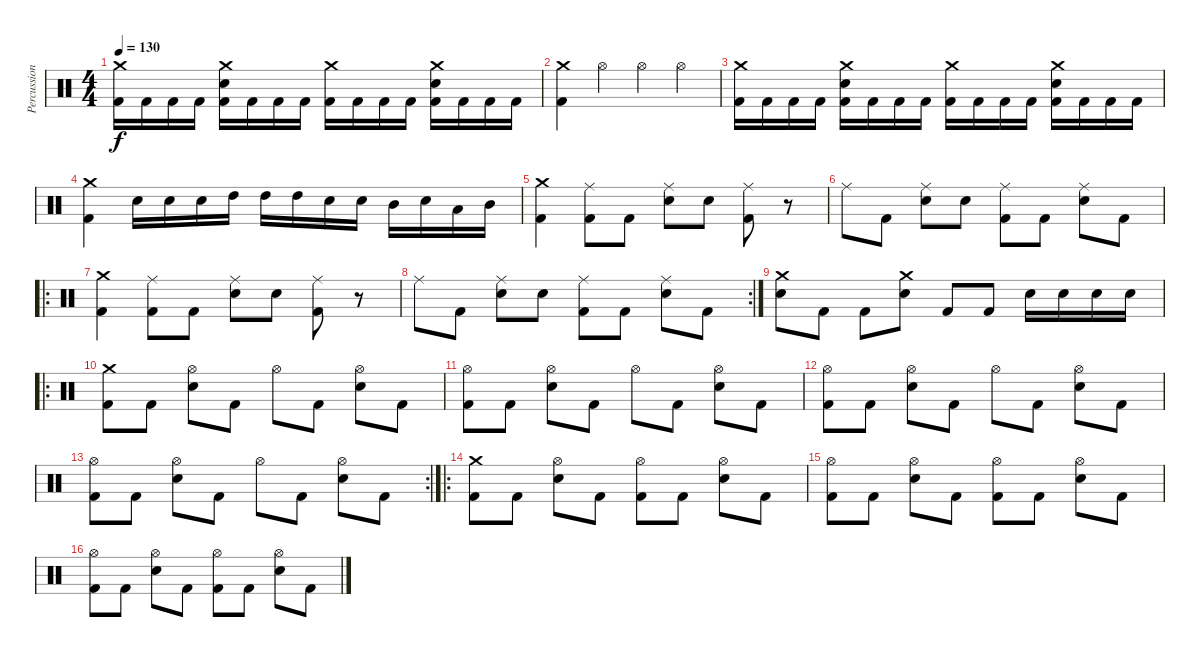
\track ("Percussion" "Percussion") {instrument percussion}
\staff {score}
\articulation defaults
\ts (4 4)
\tempo 130
\clef neutral
\ks c
("Crash medium (hit)" "Kick (hit) 2").16{dy f} "Kick (hit) 2".16 "Kick (hit) 2".16 "Kick (hit) 2".16 ("Crash medium (hit)" "Electric Snare (hit)" "Kick (hit) 2").16 "Kick (hit) 2".16 "Kick (hit) 2".16 "Kick (hit) 2".16 ("Crash medium (hit)" "Kick (hit) 2").16 "Kick (hit) 2".16 "Kick (hit) 2".16 "Kick (hit) 2".16 ("Crash medium (hit)" "Electric Snare (hit)" "Kick (hit) 2").16 "Kick (hit) 2".16 "Kick (hit) 2".16 "Kick (hit) 2".16 |
("Crash medium (hit)" "Kick (hit) 2").4 "Hi-Hat (open)".4 "Hi-Hat (open)".4 "Hi-Hat (open)".4 |
("Crash medium (hit)" "Kick (hit) 2").16 "Kick (hit) 2".16 "Kick (hit) 2".16 "Kick (hit) 2".16 ("Crash medium (hit)" "Electric Snare (hit)" "Kick (hit) 2").16 "Kick (hit) 2".16 "Kick (hit) 2".16 "Kick (hit) 2".16 ("Crash medium (hit)" "Kick (hit) 2").16 "Kick (hit) 2".16 "Kick (hit) 2".16 "Kick (hit) 2".16 ("Crash medium (hit)" "Electric Snare (hit)" "Kick (hit) 2").16 "Kick (hit) 2".16 "Kick (hit) 2".16 "Kick (hit) 2".16 |
("Crash medium (hit)" "Kick (hit) 2").4 "Electric Snare (hit)".16 "Electric Snare (hit)".16 "Electric Snare (hit)".16 "High Tom (hit)".16 "High Tom (hit)".16 "High Tom (hit)".16 "Electric Snare (hit)".16 "Electric Snare (hit)".16 "Mid Tom (hit)".16 "Electric Snare (hit)".16 "Low Tom (hit)".16 "Mid Tom (hit)".16 |
("Crash medium (hit)" "Kick (hit) 2").4 ("Ride (middle)" "Kick (hit) 2").8 "Kick (hit) 2".8 ("Ride (middle)" "Electric Snare (hit)").8 "Electric Snare (hit)".8 ("Ride (middle)" "Kick (hit) 2").8 r.8 |
"Ride (middle)".8 "Kick (hit) 2".8 ("Ride (middle)" "Electric Snare (hit)").8 "Electric Snare (hit)".8 ("Ride (middle)" "Kick (hit) 2").8 "Kick (hit) 2".8 ("Ride (middle)" "Electric Snare (hit)").8 "Kick (hit) 2".8 |
\ro
("Crash medium (hit)" "Kick (hit) 2").4 ("Ride (middle)" "Kick (hit) 2").8 "Kick (hit) 2".8 ("Ride (middle)" "Electric Snare (hit)").8 "Electric Snare (hit)".8 ("Ride (middle)" "Kick (hit) 2").8 r.8 |
\rc 2 "Ride (middle)".8 "Kick (hit) 2".8
("Ride (middle)" "Electric Snare (hit)").8 "Electric Snare (hit)".8 ("Ride (middle)" "Kick (hit) 2").8 "Kick (hit) 2".8 ("Ride (middle)" "Electric Snare (hit)").8 "Kick (hit) 2".8 |
("Crash medium (hit)" "Electric Snare (hit)").8 "Kick (hit) 2".8 "Kick (hit) 2".8 ("Crash medium (hit)" "Electric Snare (hit)").8 "Kick (hit) 2".8 "Kick (hit) 2".8 "Electric Snare (hit)".16 "Electric Snare (hit)".16 "Electric Snare (hit)".16 "Electric Snare (hit)".16 |
\ro
("Crash medium (hit)" "Kick (hit) 2").8 "Kick (hit) 2".8 ("Hi-Hat (open)" "Electric Snare (hit)").8 "Kick (hit) 2".8 "Hi-Hat (open)".8 "Kick (hit) 2".8 ("Hi-Hat (open)" "Electric Snare (hit)").8 "Kick (hit) 2".8 |
("Hi-Hat (open)" "Kick (hit) 2").8 "Kick (hit) 2".8 ("Hi-Hat (open)" "Electric Snare (hit)").8 "Kick (hit) 2".8 "Hi-Hat (open)".8 "Kick (hit) 2".8 ("Hi-Hat (open)" "Electric Snare (hit)").8 "Kick (hit) 2".8 |
("Hi-Hat (open)" "Kick (hit) 2").8 "Kick (hit) 2".8 ("Hi-Hat (open)" "Electric Snare (hit)").8 "Kick (hit) 2".8 "Hi-Hat (open)".8 "Kick (hit) 2".8 ("Hi-Hat (open)" "Electric Snare (hit)").8 "Kick (hit) 2".8 |
\rc 2
("Hi-Hat (open)" "Kick (hit) 2").8 "Kick (hit) 2".8 ("Hi-Hat (open)" "Electric Snare (hit)").8 "Kick (hit) 2".8 "Hi-Hat (open)".8 "Kick (hit) 2".8 ("Hi-Hat (open)" "Electric Snare (hit)").8 "Kick (hit) 2".8 |
\ro
("Crash medium (hit)" "Kick (hit) 2").8 "Kick (hit) 2".8 ("Hi-Hat (open)" "Electric Snare (hit)").8 "Kick (hit) 2".8 ("Hi-Hat (open)" "Kick (hit) 2").8 "Kick (hit) 2".8 ("Hi-Hat (open)" "Electric Snare (hit)").8 "Kick (hit) 2".8 |
("Hi-Hat (open)" "Kick (hit) 2").8 "Kick (hit) 2".8 ("Hi-Hat (open)" "Electric Snare (hit)").8 "Kick (hit) 2".8 ("Hi-Hat (open)" "Kick (hit) 2").8 "Kick (hit) 2".8 ("Hi-Hat (open)" "Electric Snare (hit)").8 "Kick (hit) 2".8 |
("Hi-Hat (open)" "Kick (hit) 2").8 "Kick (hit) 2".8 ("Hi-Hat (open)" "Electric Snare (hit)").8 "Kick (hit) 2".8 ("Hi-Hat (open)" "Kick (hit) 2").8 "Kick (hit) 2".8 ("Hi-Hat (open)" "Electric Snare (hit)").8 "Kick (hit) 2".8
